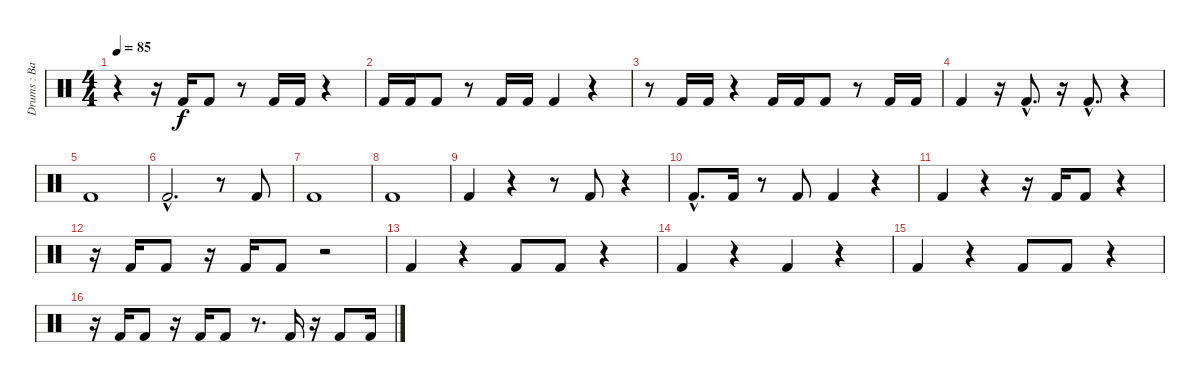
\track ("Drums : Bass Drums" "Drums : Ba") {instrument percussion}
\staff {score}
\articulation defaults
\ts (4 4)
\tempo 85
\clef neutral
\ks c
r.4{dy f} r.16 "Kick (hit) 2".16 "Kick (hit) 2".8 r.8 "Kick (hit) 2".16 "Kick (hit) 2".16 r.4 |
"Kick (hit) 2".16 "Kick (hit) 2".16 "Kick (hit) 2".8 r.8 "Kick (hit) 2".16 "Kick (hit) 2".16 "Kick (hit) 2".4 r.4 |
r.8 "Kick (hit) 2".16 "Kick (hit) 2".16 r.4 "Kick (hit) 2".16 "Kick (hit) 2".16 "Kick (hit) 2".8 r.8 "Kick (hit) 2".16 "Kick (hit) 2".16 |
"Kick (hit) 2".4 r.16 "Kick (hit) 2"{hac}.8{d} r.16 "Kick (hit) 2"{hac}.8{d} r.4 |
"Kick (hit) 2".1 |
"Kick (hit) 2"{hac}.2{d} r.8 "Kick (hit) 2".8 |
"Kick (hit) 2".1 |
"Kick (hit) 2".1 |
"Kick (hit) 2".4 r.4 r.8 "Kick (hit) 2".8 r.4 |
"Kick (hit) 2"{hac}.8{d} "Kick (hit) 2".16 r.8 "Kick (hit) 2".8 "Kick (hit) 2".4 r.4 |
"Kick (hit) 2".4 r.4 r.16 "Kick (hit) 2".16 "Kick (hit) 2".8 r.4 |
r.16 "Kick (hit) 2".16 "Kick (hit) 2".8 r.16 "Kick (hit) 2".16 "Kick (hit) 2".8 r.2 |
"Kick (hit) 2".4 r.4 "Kick (hit) 2".8 "Kick (hit) 2".8 r.4 |
"Kick (hit) 2".4 r.4 "Kick (hit) 2".4 r.4 |
"Kick (hit) 2".4 r.4 "Kick (hit) 2".8 "Kick (hit) 2".8 r.4 |
r.16 "Kick (hit) 2".16 "Kick (hit) 2".8 r.16 "Kick (hit) 2".16 "Kick (hit) 2".8 r.8{d} "Kick (hit) 2".16 r.16 "Kick (hit) 2".8 "Kick (hit) 2".16
